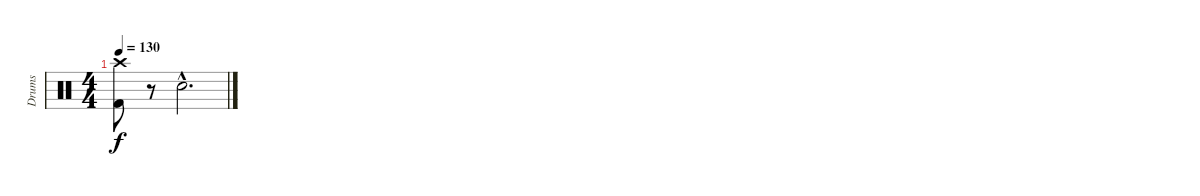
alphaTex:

\track ("Drums" "Drums") {instrument percussion}
\staff {score}
\articulation defaults
\ts (4 4)
\tempo 130
\clef neutral
\ks c
("Kick (hit) 2" "Crash high (hit)").8{dy f} r.8 "Electric Snare (hit)"{hac}.2{d}
